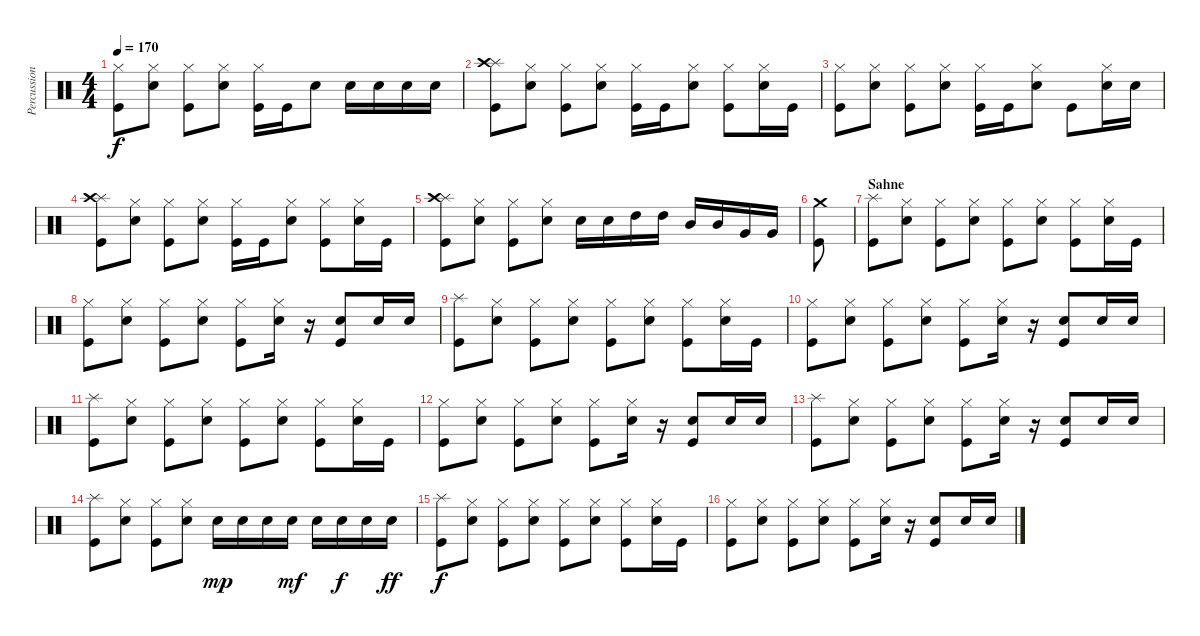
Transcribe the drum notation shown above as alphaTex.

\track ("Percussion" "Percussion") {instrument percussion}
\staff {score}
\articulation defaults
\ts (4 4)
\tempo 170
\clef neutral
\ks c
("Hi-Hat (closed)" "Kick (hit)").8{dy f} ("Hi-Hat (closed)" "Electric Snare (hit)").8 ("Hi-Hat (closed)" "Kick (hit)").8 ("Hi-Hat (closed)" "Electric Snare (hit)").8 ("Hi-Hat (closed)" "Kick (hit)").16 "Kick (hit)".16 "Electric Snare (hit)".8 "Electric Snare (hit)".16 "Electric Snare (hit)".16 "Electric Snare (hit)".16 "Electric Snare (hit)".16 |
("Splash (hit)" "Crash high (hit)" "Kick (hit)").8 ("Hi-Hat (closed)" "Electric Snare (hit)").8 ("Hi-Hat (closed)" "Kick (hit)").8 ("Hi-Hat (closed)" "Electric Snare (hit)").8 ("Hi-Hat (closed)" "Kick (hit)").16 "Kick (hit)".16 ("Hi-Hat (closed)" "Electric Snare (hit)").8 ("Hi-Hat (closed)" "Kick (hit)").8 ("Hi-Hat (closed)" "Electric Snare (hit)").16 "Kick (hit)".16 |
("Hi-Hat (closed)" "Kick (hit)").8 ("Hi-Hat (closed)" "Electric Snare (hit)").8 ("Hi-Hat (closed)" "Kick (hit)").8 ("Hi-Hat (closed)" "Electric Snare (hit)").8 ("Hi-Hat (closed)" "Kick (hit)").16 "Kick (hit)".16 ("Hi-Hat (closed)" "Electric Snare (hit)").8 "Kick (hit)".8 ("Hi-Hat (closed)" "Electric Snare (hit)").16 "Electric Snare (hit)".16 |
("Splash (hit)" "Crash high (hit)" "Kick (hit)").8 ("Hi-Hat (closed)" "Electric Snare (hit)").8 ("Hi-Hat (closed)" "Kick (hit)").8 ("Hi-Hat (closed)" "Electric Snare (hit)").8 ("Hi-Hat (closed)" "Kick (hit)").16 "Kick (hit)".16 ("Hi-Hat (closed)" "Electric Snare (hit)").8 ("Hi-Hat (closed)" "Kick (hit)").8 ("Hi-Hat (closed)" "Electric Snare (hit)").16 "Kick (hit)".16 |
("Splash (hit)" "Crash high (hit)" "Kick (hit)").8 ("Hi-Hat (closed)" "Electric Snare (hit)").8 ("Hi-Hat (closed)" "Kick (hit)").8 ("Hi-Hat (closed)" "Electric Snare (hit)").8 "Electric Snare (hit)".16 "Electric Snare (hit)".16 "High Tom (hit)".16 "High Tom (hit)".16 "Mid Tom (hit)".16 "Mid Tom (hit)".16 "Very Low Tom (hit)".16 "Very Low Tom (hit)".16 |
("Crash medium (hit)" "Kick (hit)").8 |
\section ("" "Sahne")
("Splash (hit)" "Kick (hit)").8 ("Hi-Hat (closed)" "Electric Snare (hit)").8 ("Hi-Hat (closed)" "Kick (hit)").8 ("Hi-Hat (closed)" "Electric Snare (hit)").8 ("Hi-Hat (closed)" "Kick (hit)").8 ("Hi-Hat (closed)" "Electric Snare (hit)").8 ("Hi-Hat (closed)" "Kick (hit)").8 ("Hi-Hat (closed)" "Electric Snare (hit)").16 "Kick (hit)".16 |
("Hi-Hat (closed)" "Kick (hit)").8 ("Hi-Hat (closed)" "Electric Snare (hit)").8 ("Hi-Hat (closed)" "Kick (hit)").8 ("Hi-Hat (closed)" "Electric Snare (hit)").8 ("Hi-Hat (closed)" "Kick (hit)").8 ("Hi-Hat (closed)" "Electric Snare (hit)").16 r.16 ("Electric Snare (hit)" "Kick (hit)").8 "Electric Snare (hit)".16 "Electric Snare (hit)".16 |
("Splash (hit)" "Kick (hit)").8 ("Hi-Hat (closed)" "Electric Snare (hit)").8 ("Hi-Hat (closed)" "Kick (hit)").8 ("Hi-Hat (closed)" "Electric Snare (hit)").8 ("Hi-Hat (closed)" "Kick (hit)").8 ("Hi-Hat (closed)" "Electric Snare (hit)").8 ("Hi-Hat (closed)" "Kick (hit)").8 ("Hi-Hat (closed)" "Electric Snare (hit)").16 "Kick (hit)".16 |
("Hi-Hat (closed)" "Kick (hit)").8 ("Hi-Hat (closed)" "Electric Snare (hit)").8 ("Hi-Hat (closed)" "Kick (hit)").8 ("Hi-Hat (closed)" "Electric Snare (hit)").8 ("Hi-Hat (closed)" "Kick (hit)").8 ("Hi-Hat (closed)" "Electric Snare (hit)").16 r.16 ("Electric Snare (hit)" "Kick (hit)").8 "Electric Snare (hit)".16 "Electric Snare (hit)".16 |
("Splash (hit)" "Kick (hit)").8 ("Hi-Hat (closed)" "Electric Snare (hit)").8 ("Hi-Hat (closed)" "Kick (hit)").8 ("Hi-Hat (closed)" "Electric Snare (hit)").8 ("Hi-Hat (closed)" "Kick (hit)").8 ("Hi-Hat (closed)" "Electric Snare (hit)").8 ("Hi-Hat (closed)" "Kick (hit)").8 ("Hi-Hat (closed)" "Electric Snare (hit)").16 "Kick (hit)".16 |
("Hi-Hat (closed)" "Kick (hit)").8 ("Hi-Hat (closed)" "Electric Snare (hit)").8 ("Hi-Hat (closed)" "Kick (hit)").8 ("Hi-Hat (closed)" "Electric Snare (hit)").8 ("Hi-Hat (closed)" "Kick (hit)").8 ("Hi-Hat (closed)" "Electric Snare (hit)").16 r.16 ("Electric Snare (hit)" "Kick (hit)").8 "Electric Snare (hit)".16 "Electric Snare (hit)".16 |
("Splash (hit)" "Kick (hit)").8 ("Hi-Hat (closed)" "Electric Snare (hit)").8 ("Hi-Hat (closed)" "Kick (hit)").8 ("Hi-Hat (closed)" "Electric Snare (hit)").8 ("Hi-Hat (closed)" "Kick (hit)").8 ("Hi-Hat (closed)" "Electric Snare (hit)").16 r.16 ("Electric Snare (hit)" "Kick (hit)").8 "Electric Snare (hit)".16 "Electric Snare (hit)".16 |
("Splash (hit)" "Kick (hit)").8 ("Hi-Hat (closed)" "Electric Snare (hit)").8 ("Hi-Hat (closed)" "Kick (hit)").8 ("Hi-Hat (closed)" "Electric Snare (hit)").8 "Electric Snare (hit)".16{dy mp} "Electric Snare (hit)".16 "Electric Snare (hit)".16 "Electric Snare (hit)".16{dy mf} "Electric Snare (hit)".16 "Electric Snare (hit)".16{dy f} "Electric Snare (hit)".16 "Electric Snare (hit)".16{dy ff} |
("Splash (hit)" "Kick (hit)").8{dy f} ("Hi-Hat (closed)" "Electric Snare (hit)").8 ("Hi-Hat (closed)" "Kick (hit)").8 ("Hi-Hat (closed)" "Electric Snare (hit)").8 ("Hi-Hat (closed)" "Kick (hit)").8 ("Hi-Hat (closed)" "Electric Snare (hit)").8 ("Hi-Hat (closed)" "Kick (hit)").8 ("Hi-Hat (closed)" "Electric Snare (hit)").16 "Kick (hit)".16 |
("Hi-Hat (closed)" "Kick (hit)").8 ("Hi-Hat (closed)" "Electric Snare (hit)").8 ("Hi-Hat (closed)" "Kick (hit)").8 ("Hi-Hat (closed)" "Electric Snare (hit)").8 ("Hi-Hat (closed)" "Kick (hit)").8 ("Hi-Hat (closed)" "Electric Snare (hit)").16 r.16 ("Electric Snare (hit)" "Kick (hit)").8 "Electric Snare (hit)".16 "Electric Snare (hit)".16
